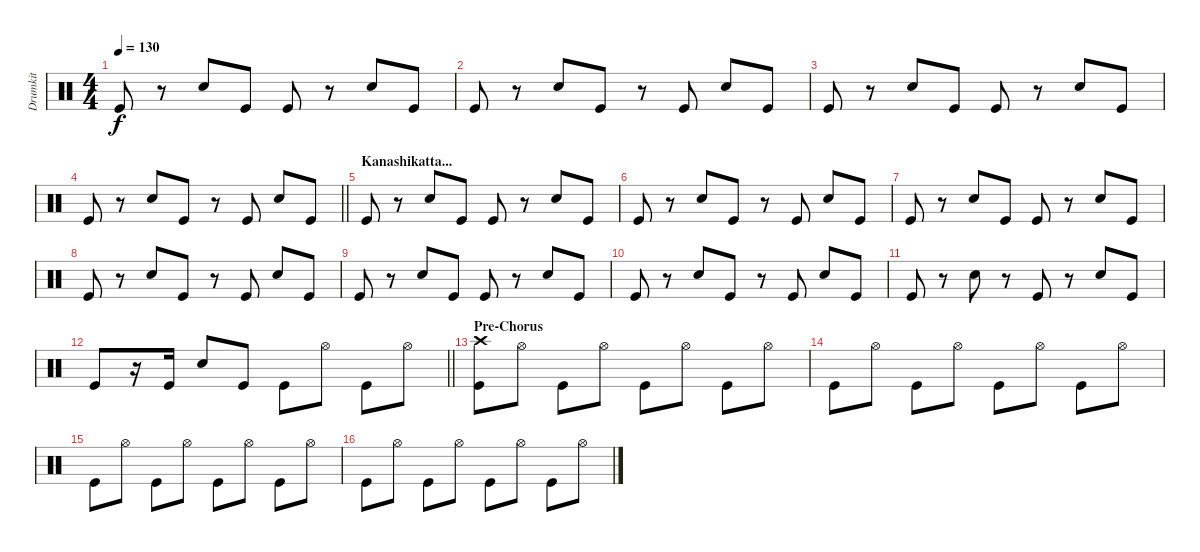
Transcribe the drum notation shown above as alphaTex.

\track ("Drumkit" "Drumkit") {instrument percussion}
\staff {score}
\articulation defaults
\ts (4 4)
\tempo 130
\clef neutral
\ks c "Kick (hit)".8{dy f}
r.8 "Snare (hit) 2".8 "Kick (hit)".8 "Kick (hit)".8 r.8 "Snare (hit) 2".8 "Kick (hit)".8 |
"Kick (hit)".8 r.8 "Snare (hit) 2".8 "Kick (hit)".8 r.8 "Kick (hit)".8 "Snare (hit) 2".8 "Kick (hit)".8 |
"Kick (hit)".8 r.8 "Snare (hit) 2".8 "Kick (hit)".8 "Kick (hit)".8 r.8 "Snare (hit) 2".8 "Kick (hit)".8 |
\barLineRight lightlight "Kick (hit)".8
r.8 "Snare (hit) 2".8 "Kick (hit)".8 r.8 "Kick (hit)".8 "Snare (hit) 2".8 "Kick (hit)".8 |
\section ("" "Kanashikatta...")
"Kick (hit)".8 r.8 "Snare (hit) 2".8 "Kick (hit)".8 "Kick (hit)".8 r.8 "Snare (hit) 2".8 "Kick (hit)".8 |
"Kick (hit)".8 r.8 "Snare (hit) 2".8 "Kick (hit)".8 r.8 "Kick (hit)".8 "Snare (hit) 2".8 "Kick (hit)".8 |
"Kick (hit)".8 r.8 "Snare (hit) 2".8 "Kick (hit)".8 "Kick (hit)".8 r.8 "Snare (hit) 2".8 "Kick (hit)".8 |
"Kick (hit)".8 r.8 "Snare (hit) 2".8 "Kick (hit)".8 r.8 "Kick (hit)".8 "Snare (hit) 2".8 "Kick (hit)".8 |
"Kick (hit)".8 r.8 "Snare (hit) 2".8 "Kick (hit)".8 "Kick (hit)".8 r.8 "Snare (hit) 2".8 "Kick (hit)".8 |
"Kick (hit)".8 r.8 "Snare (hit) 2".8 "Kick (hit)".8 r.8 "Kick (hit)".8 "Snare (hit) 2".8 "Kick (hit)".8 |
"Kick (hit)".8 r.8 "Snare (hit) 2".8 r.8 "Kick (hit)".8 r.8 "Snare (hit) 2".8 "Kick (hit)".8 |
\barLineRight lightlight "Kick (hit)".8
r.16 "Kick (hit)".16 "Snare (hit) 2".8 "Kick (hit)".8 "Kick (hit)".8 "Hi-Hat (open)".8 "Kick (hit)".8 "Hi-Hat (open)".8 |
\section ("" "Pre-Chorus")
("Kick (hit)" "Crash high (hit)").8 "Hi-Hat (open)".8 "Kick (hit)".8 "Hi-Hat (open)".8 "Kick (hit)".8 "Hi-Hat (open)".8 "Kick (hit)".8 "Hi-Hat (open)".8 |
"Kick (hit)".8 "Hi-Hat (open)".8 "Kick (hit)".8 "Hi-Hat (open)".8 "Kick (hit)".8 "Hi-Hat (open)".8 "Kick (hit)".8 "Hi-Hat (open)".8 |
"Kick (hit)".8 "Hi-Hat (open)".8 "Kick (hit)".8 "Hi-Hat (open)".8 "Kick (hit)".8 "Hi-Hat (open)".8 "Kick (hit)".8 "Hi-Hat (open)".8 |
"Kick (hit)".8 "Hi-Hat (open)".8 "Kick (hit)".8 "Hi-Hat (open)".8 "Kick (hit)".8 "Hi-Hat (open)".8 "Kick (hit)".8 "Hi-Hat (open)".8
